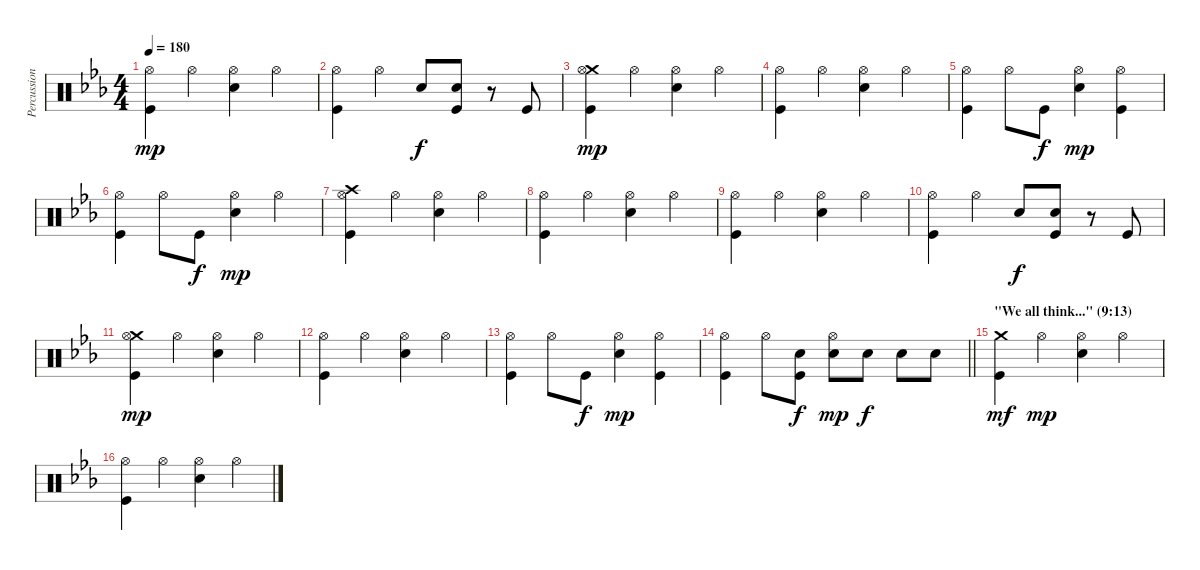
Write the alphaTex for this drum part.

\track ("Percussion" "Percussion") {instrument percussion}
\staff {score}
\articulation defaults
\ts (4 4)
\tempo 180
\clef neutral
\ks cminor
("Hi-Hat (open)" "Kick (hit)").4{dy mp} "Hi-Hat (open)".4 ("Hi-Hat (open)" "Snare (hit) 2").4 "Hi-Hat (open)".4 |
("Hi-Hat (open)" "Kick (hit)").4 "Hi-Hat (open)".4 "Snare (hit) 2".8{dy f} ("Snare (hit) 2" "Kick (hit)").8 r.8 "Kick (hit)".8 |
("Crash medium (hit)" "Hi-Hat (open)" "Kick (hit)").4{dy mp} "Hi-Hat (open)".4 ("Hi-Hat (open)" "Snare (hit) 2").4 "Hi-Hat (open)".4 |
("Hi-Hat (open)" "Kick (hit)").4 "Hi-Hat (open)".4 ("Hi-Hat (open)" "Snare (hit) 2").4 "Hi-Hat (open)".4 |
("Hi-Hat (open)" "Kick (hit)").4 "Hi-Hat (open)".8 "Kick (hit)".8{dy f} ("Hi-Hat (open)" "Snare (hit) 2").4{dy mp} ("Hi-Hat (open)" "Kick (hit)").4 |
("Hi-Hat (open)" "Kick (hit)").4 "Hi-Hat (open)".8 "Kick (hit)".8{dy f} ("Hi-Hat (open)" "Snare (hit) 2").4{dy mp} "Hi-Hat (open)".4 |
("Crash high (hit)" "Hi-Hat (open)" "Kick (hit)").4 "Hi-Hat (open)".4 ("Hi-Hat (open)" "Snare (hit) 2").4 "Hi-Hat (open)".4 |
("Hi-Hat (open)" "Kick (hit)").4 "Hi-Hat (open)".4 ("Hi-Hat (open)" "Snare (hit) 2").4 "Hi-Hat (open)".4 |
("Hi-Hat (open)" "Kick (hit)").4 "Hi-Hat (open)".4 ("Hi-Hat (open)" "Snare (hit) 2").4 "Hi-Hat (open)".4 |
("Hi-Hat (open)" "Kick (hit)").4 "Hi-Hat (open)".4 "Snare (hit) 2".8{dy f} ("Snare (hit) 2" "Kick (hit)").8 r.8 "Kick (hit)".8 |
("Crash medium (hit)" "Hi-Hat (open)" "Kick (hit)").4{dy mp} "Hi-Hat (open)".4 ("Hi-Hat (open)" "Snare (hit) 2").4 "Hi-Hat (open)".4 |
("Hi-Hat (open)" "Kick (hit)").4 "Hi-Hat (open)".4 ("Hi-Hat (open)" "Snare (hit) 2").4 "Hi-Hat (open)".4 |
("Hi-Hat (open)" "Kick (hit)").4 "Hi-Hat (open)".8 "Kick (hit)".8{dy f} ("Hi-Hat (open)" "Snare (hit) 2").4{dy mp} ("Hi-Hat (open)" "Kick (hit)").4 |
\barLineRight lightlight
("Hi-Hat (open)" "Kick (hit)").4 "Hi-Hat (open)".8 ("Snare (hit) 2" "Kick (hit)").8{dy f} ("Hi-Hat (open)" "Snare (hit) 2").8{dy mp} "Snare (hit) 2".8{dy f} "Snare (hit) 2".8 "Snare (hit) 2".8 |
\section ("" "\"We all think...\" (9:13)")
("Crash medium (hit)" "Kick (hit)").4{dy mf} "Hi-Hat (open)".4{dy mp} ("Hi-Hat (open)" "Snare (hit) 2").4 "Hi-Hat (open)".4 |
("Hi-Hat (open)" "Kick (hit)").4 "Hi-Hat (open)".4 ("Hi-Hat (open)" "Snare (hit) 2").4 "Hi-Hat (open)".4
